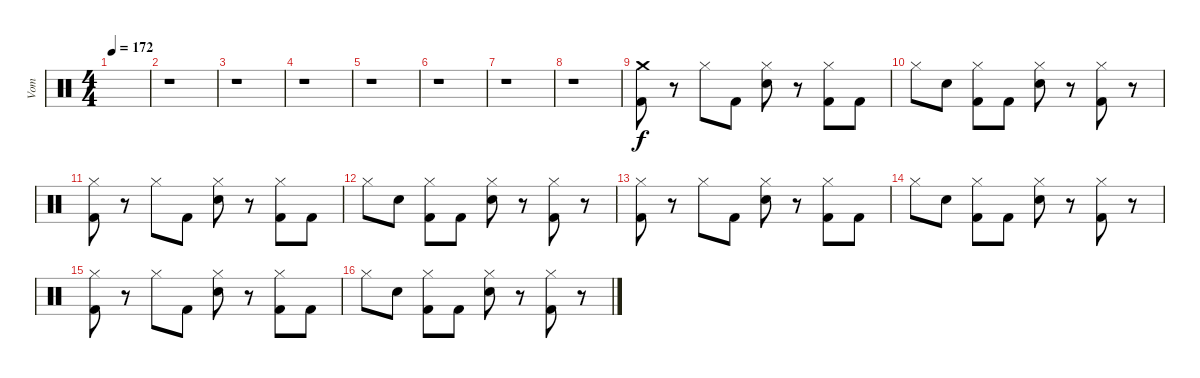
\track ("Vom" "Vom") {instrument percussion}
\staff {score}
\articulation defaults
\ts (4 4)
\tempo 172
\clef neutral
\ks c
|
r.1 |
r.1 |
r.1 |
r.1 |
r.1 |
r.1 |
r.1 |
("Crash medium (hit)" "Kick (hit) 2").8 r.8 "Hi-Hat (closed)".8 "Kick (hit) 2".8 ("Hi-Hat (closed)" "Snare (hit) 2").8 r.8 ("Hi-Hat (closed)" "Kick (hit) 2").8 "Kick (hit) 2".8 |
"Hi-Hat (closed)".8 "Snare (hit) 2".8 ("Hi-Hat (closed)" "Kick (hit) 2").8 "Kick (hit) 2".8 ("Hi-Hat (closed)" "Snare (hit) 2").8 r.8 ("Hi-Hat (closed)" "Kick (hit) 2").8 r.8 |
("Hi-Hat (closed)" "Kick (hit) 2").8 r.8 "Hi-Hat (closed)".8 "Kick (hit) 2".8 ("Hi-Hat (closed)" "Snare (hit) 2").8 r.8 ("Hi-Hat (closed)" "Kick (hit) 2").8 "Kick (hit) 2".8 |
"Hi-Hat (closed)".8 "Snare (hit) 2".8 ("Hi-Hat (closed)" "Kick (hit) 2").8 "Kick (hit) 2".8 ("Hi-Hat (closed)" "Snare (hit) 2").8 r.8 ("Hi-Hat (closed)" "Kick (hit) 2").8 r.8 |
("Hi-Hat (closed)" "Kick (hit) 2").8 r.8 "Hi-Hat (closed)".8 "Kick (hit) 2".8 ("Hi-Hat (closed)" "Snare (hit) 2").8 r.8 ("Hi-Hat (closed)" "Kick (hit) 2").8 "Kick (hit) 2".8 |
"Hi-Hat (closed)".8 "Snare (hit) 2".8 ("Hi-Hat (closed)" "Kick (hit) 2").8 "Kick (hit) 2".8 ("Hi-Hat (closed)" "Snare (hit) 2").8 r.8 ("Hi-Hat (closed)" "Kick (hit) 2").8 r.8 |
("Hi-Hat (closed)" "Kick (hit) 2").8 r.8 "Hi-Hat (closed)".8 "Kick (hit) 2".8 ("Hi-Hat (closed)" "Snare (hit) 2").8 r.8 ("Hi-Hat (closed)" "Kick (hit) 2").8 "Kick (hit) 2".8 |
"Hi-Hat (closed)".8 "Snare (hit) 2".8 ("Hi-Hat (closed)" "Kick (hit) 2").8 "Kick (hit) 2".8 ("Hi-Hat (closed)" "Snare (hit) 2").8 r.8 ("Hi-Hat (closed)" "Kick (hit) 2").8 r.8
